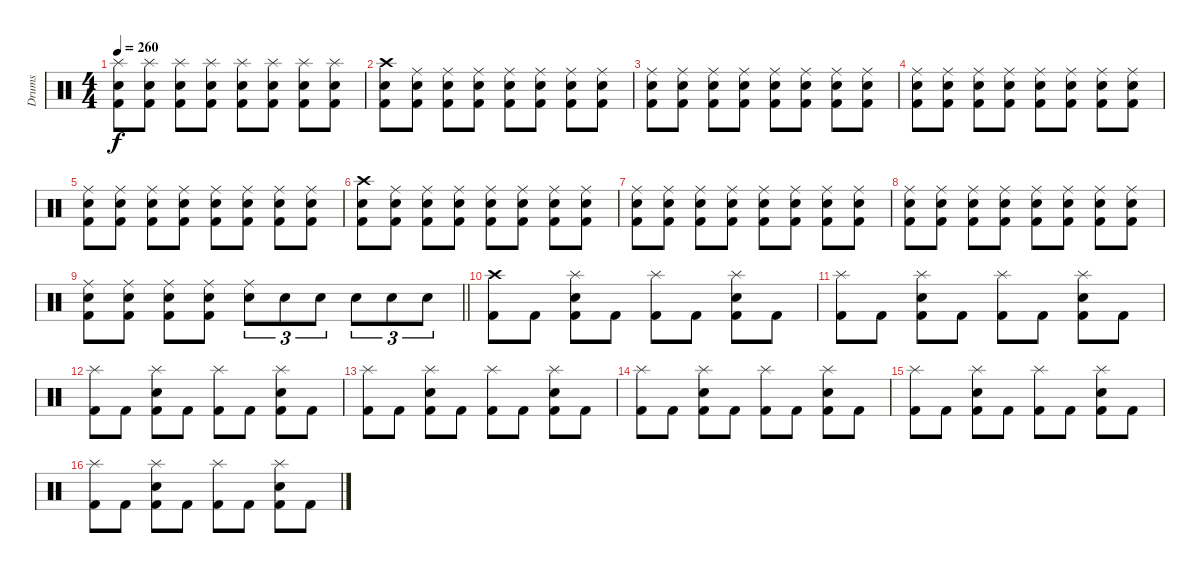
\track ("Drums" "Drums") {instrument percussion}
\staff {score}
\articulation defaults
\ts (4 4)
\tempo 260
\clef neutral
\ks c
("Splash (hit)" "Electric Snare (hit)" "Kick (hit) 2").8{dy f} ("Splash (hit)" "Electric Snare (hit)" "Kick (hit) 2").8 ("Splash (hit)" "Electric Snare (hit)" "Kick (hit) 2").8 ("Splash (hit)" "Electric Snare (hit)" "Kick (hit) 2").8 ("Splash (hit)" "Electric Snare (hit)" "Kick (hit) 2").8 ("Splash (hit)" "Electric Snare (hit)" "Kick (hit) 2").8 ("Splash (hit)" "Electric Snare (hit)" "Kick (hit) 2").8 ("Splash (hit)" "Electric Snare (hit)" "Kick (hit) 2").8 |
("Crash high (hit)" "Electric Snare (hit)" "Kick (hit) 2").8 ("Ride (middle)" "Electric Snare (hit)" "Kick (hit) 2").8 ("Ride (middle)" "Electric Snare (hit)" "Kick (hit) 2").8 ("Ride (middle)" "Electric Snare (hit)" "Kick (hit) 2").8 ("Ride (middle)" "Electric Snare (hit)" "Kick (hit) 2").8 ("Ride (middle)" "Electric Snare (hit)" "Kick (hit) 2").8 ("Ride (middle)" "Electric Snare (hit)" "Kick (hit) 2").8 ("Ride (middle)" "Electric Snare (hit)" "Kick (hit) 2").8 |
("Ride (middle)" "Electric Snare (hit)" "Kick (hit) 2").8 ("Ride (middle)" "Electric Snare (hit)" "Kick (hit) 2").8 ("Ride (middle)" "Electric Snare (hit)" "Kick (hit) 2").8 ("Ride (middle)" "Electric Snare (hit)" "Kick (hit) 2").8 ("Ride (middle)" "Electric Snare (hit)" "Kick (hit) 2").8 ("Ride (middle)" "Electric Snare (hit)" "Kick (hit) 2").8 ("Ride (middle)" "Electric Snare (hit)" "Kick (hit) 2").8 ("Ride (middle)" "Electric Snare (hit)" "Kick (hit) 2").8 |
("Ride (middle)" "Electric Snare (hit)" "Kick (hit) 2").8 ("Ride (middle)" "Electric Snare (hit)" "Kick (hit) 2").8 ("Ride (middle)" "Electric Snare (hit)" "Kick (hit) 2").8 ("Ride (middle)" "Electric Snare (hit)" "Kick (hit) 2").8 ("Ride (middle)" "Electric Snare (hit)" "Kick (hit) 2").8 ("Ride (middle)" "Electric Snare (hit)" "Kick (hit) 2").8 ("Ride (middle)" "Electric Snare (hit)" "Kick (hit) 2").8 ("Ride (middle)" "Electric Snare (hit)" "Kick (hit) 2").8 |
("Ride (middle)" "Electric Snare (hit)" "Kick (hit) 2").8 ("Ride (middle)" "Electric Snare (hit)" "Kick (hit) 2").8 ("Ride (middle)" "Electric Snare (hit)" "Kick (hit) 2").8 ("Ride (middle)" "Electric Snare (hit)" "Kick (hit) 2").8 ("Ride (middle)" "Electric Snare (hit)" "Kick (hit) 2").8 ("Ride (middle)" "Electric Snare (hit)" "Kick (hit) 2").8 ("Ride (middle)" "Electric Snare (hit)" "Kick (hit) 2").8 ("Ride (middle)" "Electric Snare (hit)" "Kick (hit) 2").8 |
("Crash high (hit)" "Electric Snare (hit)" "Kick (hit) 2").8 ("Ride (middle)" "Electric Snare (hit)" "Kick (hit) 2").8 ("Ride (middle)" "Electric Snare (hit)" "Kick (hit) 2").8 ("Ride (middle)" "Electric Snare (hit)" "Kick (hit) 2").8 ("Ride (middle)" "Electric Snare (hit)" "Kick (hit) 2").8 ("Ride (middle)" "Electric Snare (hit)" "Kick (hit) 2").8 ("Ride (middle)" "Electric Snare (hit)" "Kick (hit) 2").8 ("Ride (middle)" "Electric Snare (hit)" "Kick (hit) 2").8 |
("Ride (middle)" "Electric Snare (hit)" "Kick (hit) 2").8 ("Ride (middle)" "Electric Snare (hit)" "Kick (hit) 2").8 ("Ride (middle)" "Electric Snare (hit)" "Kick (hit) 2").8 ("Ride (middle)" "Electric Snare (hit)" "Kick (hit) 2").8 ("Ride (middle)" "Electric Snare (hit)" "Kick (hit) 2").8 ("Ride (middle)" "Electric Snare (hit)" "Kick (hit) 2").8 ("Ride (middle)" "Electric Snare (hit)" "Kick (hit) 2").8 ("Ride (middle)" "Electric Snare (hit)" "Kick (hit) 2").8 |
("Ride (middle)" "Electric Snare (hit)" "Kick (hit) 2").8 ("Ride (middle)" "Electric Snare (hit)" "Kick (hit) 2").8 ("Ride (middle)" "Electric Snare (hit)" "Kick (hit) 2").8 ("Ride (middle)" "Electric Snare (hit)" "Kick (hit) 2").8 ("Ride (middle)" "Electric Snare (hit)" "Kick (hit) 2").8 ("Ride (middle)" "Electric Snare (hit)" "Kick (hit) 2").8 ("Ride (middle)" "Electric Snare (hit)" "Kick (hit) 2").8 ("Ride (middle)" "Electric Snare (hit)" "Kick (hit) 2").8 |
\barLineRight lightlight
("Ride (middle)" "Electric Snare (hit)" "Kick (hit) 2").8 ("Ride (middle)" "Electric Snare (hit)" "Kick (hit) 2").8 ("Ride (middle)" "Electric Snare (hit)" "Kick (hit) 2").8 ("Ride (middle)" "Electric Snare (hit)" "Kick (hit) 2").8 ("Ride (middle)" "Electric Snare (hit)").8{tu (3 2)} "Electric Snare (hit)".8{tu (3 2)} "Electric Snare (hit)".8{tu (3 2)} "Electric Snare (hit)".8{tu (3 2)} "Electric Snare (hit)".8{tu (3 2)} "Electric Snare (hit)".8{tu (3 2)} |
("Crash high (hit)" "Kick (hit) 2").8 "Kick (hit) 2".8 ("Splash (hit)" "Electric Snare (hit)" "Kick (hit) 2").8 "Kick (hit) 2".8 ("Splash (hit)" "Kick (hit) 2").8 "Kick (hit) 2".8 ("Splash (hit)" "Electric Snare (hit)" "Kick (hit) 2").8 "Kick (hit) 2".8 |
("Splash (hit)" "Kick (hit) 2").8 "Kick (hit) 2".8 ("Splash (hit)" "Electric Snare (hit)" "Kick (hit) 2").8 "Kick (hit) 2".8 ("Splash (hit)" "Kick (hit) 2").8 "Kick (hit) 2".8 ("Splash (hit)" "Electric Snare (hit)" "Kick (hit) 2").8 "Kick (hit) 2".8 |
("Splash (hit)" "Kick (hit) 2").8 "Kick (hit) 2".8 ("Splash (hit)" "Electric Snare (hit)" "Kick (hit) 2").8 "Kick (hit) 2".8 ("Splash (hit)" "Kick (hit) 2").8 "Kick (hit) 2".8 ("Splash (hit)" "Electric Snare (hit)" "Kick (hit) 2").8 "Kick (hit) 2".8 |
("Splash (hit)" "Kick (hit) 2").8 "Kick (hit) 2".8 ("Splash (hit)" "Electric Snare (hit)" "Kick (hit) 2").8 "Kick (hit) 2".8 ("Splash (hit)" "Kick (hit) 2").8 "Kick (hit) 2".8 ("Splash (hit)" "Electric Snare (hit)" "Kick (hit) 2").8 "Kick (hit) 2".8 |
("Splash (hit)" "Kick (hit) 2").8 "Kick (hit) 2".8 ("Splash (hit)" "Electric Snare (hit)" "Kick (hit) 2").8 "Kick (hit) 2".8 ("Splash (hit)" "Kick (hit) 2").8 "Kick (hit) 2".8 ("Splash (hit)" "Electric Snare (hit)" "Kick (hit) 2").8 "Kick (hit) 2".8 |
("Splash (hit)" "Kick (hit) 2").8 "Kick (hit) 2".8 ("Splash (hit)" "Electric Snare (hit)" "Kick (hit) 2").8 "Kick (hit) 2".8 ("Splash (hit)" "Kick (hit) 2").8 "Kick (hit) 2".8 ("Splash (hit)" "Electric Snare (hit)" "Kick (hit) 2").8 "Kick (hit) 2".8 |
("Splash (hit)" "Kick (hit) 2").8 "Kick (hit) 2".8 ("Splash (hit)" "Electric Snare (hit)" "Kick (hit) 2").8 "Kick (hit) 2".8 ("Splash (hit)" "Kick (hit) 2").8 "Kick (hit) 2".8 ("Splash (hit)" "Electric Snare (hit)" "Kick (hit) 2").8 "Kick (hit) 2".8
